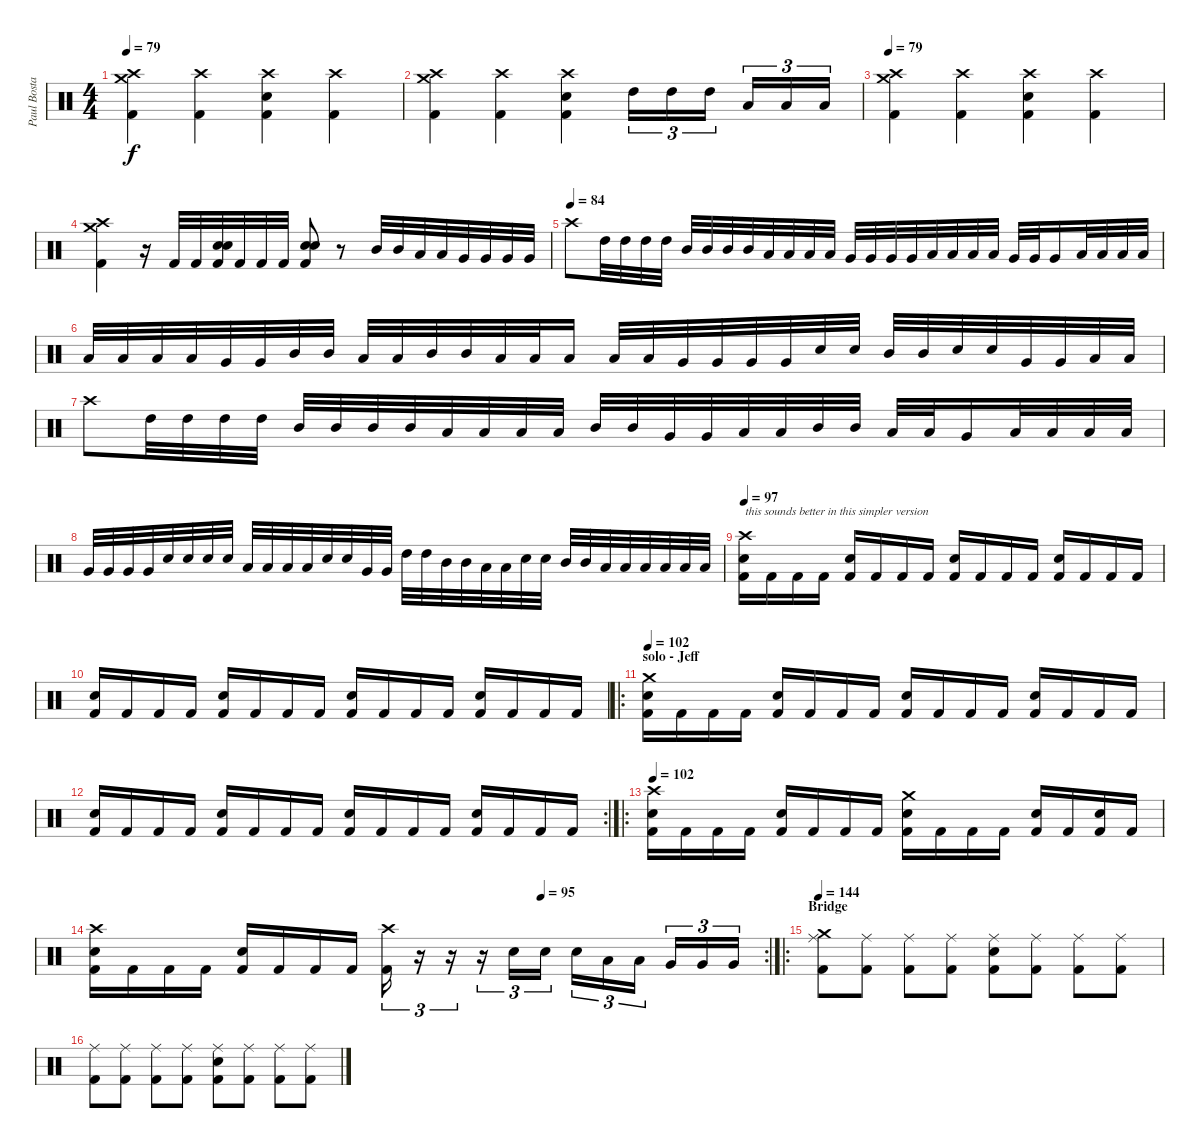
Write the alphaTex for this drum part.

\track ("Paul Bostaph" "Paul Bosta") {instrument percussion}
\staff {score}
\articulation defaults
\ts (4 4)
\tempo 79
\clef neutral
\ks c
("Crash high (hit)" "Crash medium (hit)" "Kick (hit) 2").4{dy f} ("Crash high (hit)" "Kick (hit) 2").4 ("Crash high (hit)" "Snare (hit) 2" "Kick (hit) 2").4 ("Crash high (hit)" "Kick (hit) 2").4 |
("Crash high (hit)" "Crash medium (hit)" "Kick (hit) 2").4 ("Crash high (hit)" "Kick (hit) 2").4 ("Crash high (hit)" "Snare (hit) 2" "Kick (hit) 2").4 "High Tom (hit)".16{tu (3 2)} "High Tom (hit)".16{tu (3 2)} "High Tom (hit)".16{tu (3 2)} "Low Tom (hit)".16{tu (3 2)} "Low Tom (hit)".16{tu (3 2)} "Low Tom (hit)".16{tu (3 2)} |
\tempo 79
("Crash high (hit)" "Crash medium (hit)" "Kick (hit) 2").4 ("Crash high (hit)" "Kick (hit) 2").4 ("Crash high (hit)" "Snare (hit) 2" "Kick (hit) 2").4 ("Crash high (hit)" "Kick (hit) 2").4 |
("Crash high (hit)" "Crash medium (hit)" "Kick (hit) 2").4 r.16 "Kick (hit) 2".32 "Kick (hit) 2".32 ("Snare (hit) 2" "Snare (hit) 2" "Kick (hit) 2").32 "Kick (hit) 2".32 "Kick (hit) 2".32 "Kick (hit) 2".32 ("Snare (hit) 2" "Snare (hit) 2" "Kick (hit) 2").8 r.8 "Mid Tom (hit)".32 "Mid Tom (hit)".32 "Low Tom (hit)".32 "Low Tom (hit)".32 "Very Low Tom (hit)".32 "Very Low Tom (hit)".32 "Very Low Tom (hit)".32 "Very Low Tom (hit)".32 |
\tempo (84)
"Crash high (hit)".8{volume 16} "High Tom (hit)".32 "High Tom (hit)".32 "High Tom (hit)".32 "High Tom (hit)".32 "Mid Tom (hit)".32 "Mid Tom (hit)".32 "Mid Tom (hit)".32 "Mid Tom (hit)".32 "Low Tom (hit)".32 "Low Tom (hit)".32 "Low Tom (hit)".32 "Low Tom (hit)".32 "Very Low Tom (hit)".32 "Very Low Tom (hit)".32 "Very Low Tom (hit)".32 "Very Low Tom (hit)".32 "Low Tom (hit)".32 "Low Tom (hit)".32 "Low Tom (hit)".32 "Low Tom (hit)".32 "Very Low Tom (hit)".32 "Very Low Tom (hit)".32 "Very Low Tom (hit)".16 "Low Floor Tom (hit)".32 "Low Floor Tom (hit)".32 "Low Floor Tom (hit)".32 "Low Floor Tom (hit)".32 |
"Low Tom (hit)".32 "Low Tom (hit)".32 "Low Tom (hit)".32 "Low Tom (hit)".32 "Very Low Tom (hit)".32 "Very Low Tom (hit)".32 "Mid Tom (hit)".32 "Mid Tom (hit)".32 "Low Tom (hit)".32 "Low Tom (hit)".32 "Mid Tom (hit)".32 "Mid Tom (hit)".32 "Low Floor Tom (hit)".32 "Low Floor Tom (hit)".32 "Low Floor Tom (hit)".16 "Low Tom (hit)".32 "Low Tom (hit)".32 "Very Low Tom (hit)".32 "Very Low Tom (hit)".32 "Very Low Tom (hit)".32 "Very Low Tom (hit)".32 "Snare (hit) 2".32 "Snare (hit) 2".32 "Mid Tom (hit)".32 "Mid Tom (hit)".32 "Snare (hit) 2".32 "Snare (hit) 2".32 "Very Low Tom (hit)".32 "Very Low Tom (hit)".32 "Low Floor Tom (hit)".32 "Low Floor Tom (hit)".32 |
"Crash high (hit)".8 "High Tom (hit)".32 "High Tom (hit)".32 "High Tom (hit)".32 "High Tom (hit)".32 "Mid Tom (hit)".32 "Mid Tom (hit)".32 "Mid Tom (hit)".32 "Mid Tom (hit)".32 "Low Tom (hit)".32 "Low Tom (hit)".32 "Low Tom (hit)".32 "Low Tom (hit)".32 "Mid Tom (hit)".32 "Mid Tom (hit)".32 "Very Low Tom (hit)".32 "Very Low Tom (hit)".32 "Low Floor Tom (hit)".32 "Low Floor Tom (hit)".32 "Mid Tom (hit)".32 "Mid Tom (hit)".32 "Low Tom (hit)".32 "Low Tom (hit)".32 "Very Low Tom (hit)".16 "Low Floor Tom (hit)".32 "Low Floor Tom (hit)".32 "Low Floor Tom (hit)".32 "Low Floor Tom (hit)".32 |
"Very Low Tom (hit)".32 "Very Low Tom (hit)".32 "Very Low Tom (hit)".32 "Very Low Tom (hit)".32 "Snare (hit) 2".32 "Snare (hit) 2".32 "Snare (hit) 2".32 "Snare (hit) 2".32 "Low Tom (hit)".32 "Low Tom (hit)".32 "Low Tom (hit)".32 "Low Tom (hit)".32 "Snare (hit) 2".32 "Snare (hit) 2".32 "Very Low Tom (hit)".32 "Very Low Tom (hit)".32 "High Tom (hit)".32 "High Tom (hit)".32 "Mid Tom (hit)".32 "Mid Tom (hit)".32 "Low Tom (hit)".32 "Low Tom (hit)".32 "Snare (hit) 2".32 "Snare (hit) 2".32 "Mid Tom (hit)".32 "Mid Tom (hit)".32 "Low Floor Tom (hit)".32 "Low Floor Tom (hit)".32 "Low Tom (hit)".32 "Low Tom (hit)".32 "Low Floor Tom (hit)".32 "Low Floor Tom (hit)".32 |
\tempo 99
\tempo 97
("Crash high (hit)" "Snare (hit) 2" "Kick (hit) 2").16{txt "this sounds better in this simpler version"} "Kick (hit) 2".16 "Kick (hit) 2".16 "Kick (hit) 2".16 ("Snare (hit) 2" "Kick (hit) 2").16 "Kick (hit) 2".16 "Kick (hit) 2".16 "Kick (hit) 2".16 ("Snare (hit) 2" "Kick (hit) 2").16 "Kick (hit) 2".16 "Kick (hit) 2".16 "Kick (hit) 2".16 ("Snare (hit) 2" "Kick (hit) 2").16 "Kick (hit) 2".16 "Kick (hit) 2".16 "Kick (hit) 2".16 |
("Snare (hit) 2" "Kick (hit) 2").16 "Kick (hit) 2".16 "Kick (hit) 2".16 "Kick (hit) 2".16 ("Snare (hit) 2" "Kick (hit) 2").16 "Kick (hit) 2".16 "Kick (hit) 2".16 "Kick (hit) 2".16 ("Snare (hit) 2" "Kick (hit) 2").16 "Kick (hit) 2".16 "Kick (hit) 2".16 "Kick (hit) 2".16 ("Snare (hit) 2" "Kick (hit) 2").16 "Kick (hit) 2".16 "Kick (hit) 2".16 "Kick (hit) 2".16 |
\ro
\section ("" "solo - Jeff")
\tempo 102
("Crash medium (hit)" "Snare (hit) 2" "Kick (hit) 2").16 "Kick (hit) 2".16 "Kick (hit) 2".16 "Kick (hit) 2".16 ("Snare (hit) 2" "Kick (hit) 2").16 "Kick (hit) 2".16 "Kick (hit) 2".16 "Kick (hit) 2".16 ("Snare (hit) 2" "Kick (hit) 2").16 "Kick (hit) 2".16 "Kick (hit) 2".16 "Kick (hit) 2".16 ("Snare (hit) 2" "Kick (hit) 2").16 "Kick (hit) 2".16 "Kick (hit) 2".16 "Kick (hit) 2".16 |
\rc 2
("Snare (hit) 2" "Kick (hit) 2").16 "Kick (hit) 2".16 "Kick (hit) 2".16 "Kick (hit) 2".16 ("Snare (hit) 2" "Kick (hit) 2").16 "Kick (hit) 2".16 "Kick (hit) 2".16 "Kick (hit) 2".16 ("Snare (hit) 2" "Kick (hit) 2").16 "Kick (hit) 2".16 "Kick (hit) 2".16 "Kick (hit) 2".16 ("Snare (hit) 2" "Kick (hit) 2").16 "Kick (hit) 2".16 "Kick (hit) 2".16 "Kick (hit) 2".16 |
\ro
\tempo 102
("Crash high (hit)" "Snare (hit) 2" "Kick (hit) 2").16 "Kick (hit) 2".16 "Kick (hit) 2".16 "Kick (hit) 2".16 ("Snare (hit) 2" "Kick (hit) 2").16 "Kick (hit) 2".16 "Kick (hit) 2".16 "Kick (hit) 2".16 ("Crash medium (hit)" "Snare (hit) 2" "Kick (hit) 2").16 "Kick (hit) 2".16 "Kick (hit) 2".16 "Kick (hit) 2".16 ("Snare (hit) 2" "Kick (hit) 2").16 "Kick (hit) 2".16 ("Snare (hit) 2" "Kick (hit) 2").16 "Kick (hit) 2".16 |
\rc 2
\tempo (95 0.6666666666666666)
("Crash high (hit)" "Snare (hit) 2" "Kick (hit) 2").16 "Kick (hit) 2".16 "Kick (hit) 2".16 "Kick (hit) 2".16 ("Snare (hit) 2" "Kick (hit) 2").16 "Kick (hit) 2".16 "Kick (hit) 2".16 "Kick (hit) 2".16 ("Crash high (hit)" "Kick (hit) 2").16{tu (3 2)} r.16{tu (3 2)} r.16{tu (3 2)} r.16{tu (3 2)} "Snare (hit) 2".16{tu (3 2)} "Snare (hit) 2".16{tu (3 2)} "Snare (hit) 2".16{tu (3 2)} "Low Tom (hit)".16{tu (3 2)} "Low Tom (hit)".16{tu (3 2)} "Very Low Tom (hit)".16{tu (3 2)} "Very Low Tom (hit)".16{tu (3 2)} "Very Low Tom (hit)".16{tu (3 2)} |
\ro
\section ("" "Bridge")
\tempo 144
("Crash medium (hit)" "Ride (middle)" "Kick (hit) 2").8 ("Ride (middle)" "Kick (hit) 2").8 ("Ride (middle)" "Kick (hit) 2").8 ("Ride (middle)" "Kick (hit) 2").8 ("Ride (middle)" "Snare (hit) 2" "Kick (hit) 2").8 ("Ride (middle)" "Kick (hit) 2").8 ("Ride (middle)" "Kick (hit) 2").8 ("Ride (middle)" "Kick (hit) 2").8 |
("Ride (middle)" "Kick (hit) 2").8 ("Ride (middle)" "Kick (hit) 2").8 ("Ride (middle)" "Kick (hit) 2").8 ("Ride (middle)" "Kick (hit) 2").8 ("Ride (middle)" "Snare (hit) 2" "Kick (hit) 2").8 ("Ride (middle)" "Kick (hit) 2").8 ("Ride (middle)" "Kick (hit) 2").8 ("Ride (middle)" "Kick (hit) 2").8
